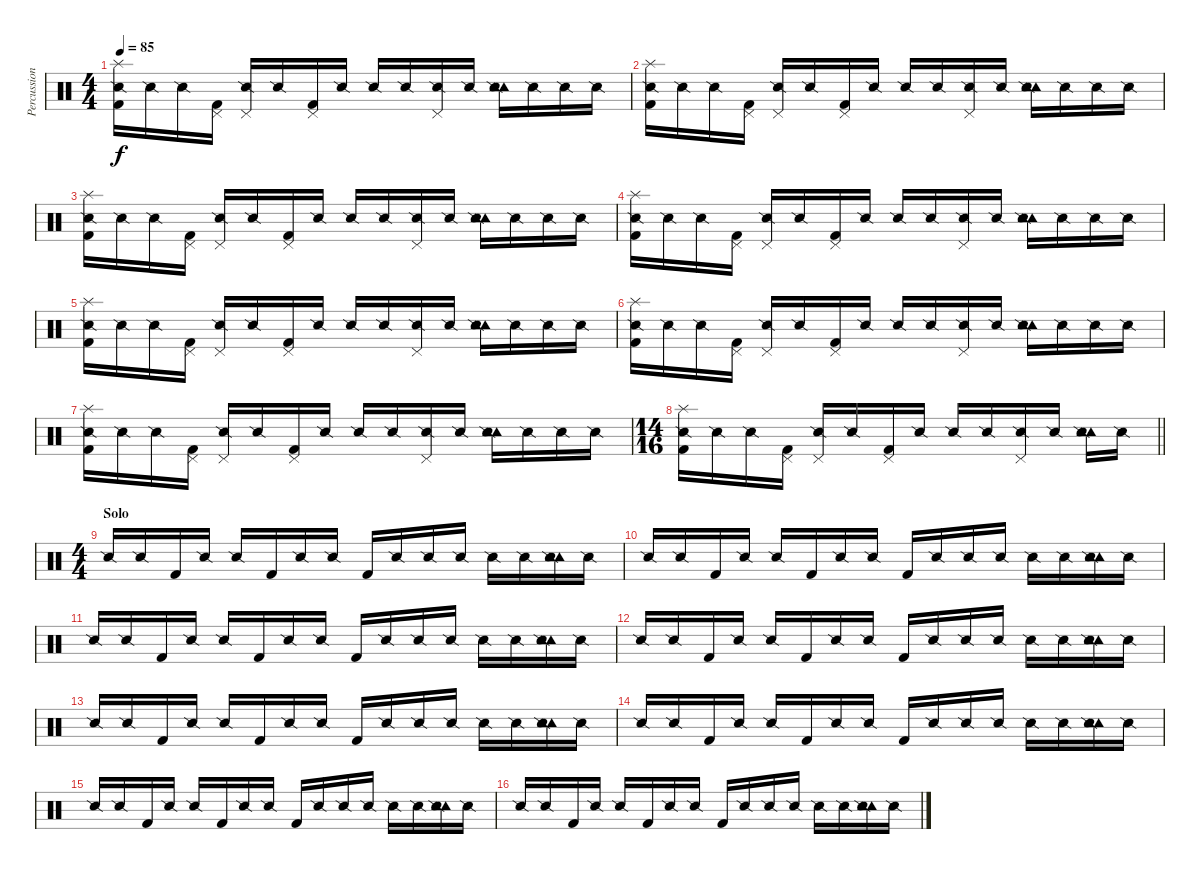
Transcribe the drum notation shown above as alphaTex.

\track ("Percussion" "Percussion") {instrument percussion}
\staff {score}
\articulation defaults
\ts (4 4)
\tempo 85
\clef neutral
\ks c
("Splash (hit)" "Kick (hit) 2" "Snare (side stick) 2").16{dy f} "Snare (side stick) 2".16 "Snare (side stick) 2".16 ("Pedal Hi-Hat (hit)" "Kick (hit) 2").16 ("Pedal Hi-Hat (hit)" "Snare (side stick) 2").16 "Snare (side stick) 2".16 ("Pedal Hi-Hat (hit)" "Kick (hit) 2").16 "Snare (side stick) 2".16 "Snare (side stick) 2".16 "Snare (side stick) 2".16 ("Pedal Hi-Hat (hit)" "Snare (side stick) 2").16 "Snare (side stick) 2".16 ("Tambourine (hit)" "Tambourine (hit)" "Snare (side stick) 2").16 "Snare (side stick) 2".16 "Snare (side stick) 2".16 "Snare (side stick) 2".16 |
("Splash (hit)" "Kick (hit) 2" "Snare (side stick) 2").16 "Snare (side stick) 2".16 "Snare (side stick) 2".16 ("Pedal Hi-Hat (hit)" "Kick (hit) 2").16 ("Pedal Hi-Hat (hit)" "Snare (side stick) 2").16 "Snare (side stick) 2".16 ("Pedal Hi-Hat (hit)" "Kick (hit) 2").16 "Snare (side stick) 2".16 "Snare (side stick) 2".16 "Snare (side stick) 2".16 ("Pedal Hi-Hat (hit)" "Snare (side stick) 2").16 "Snare (side stick) 2".16 ("Tambourine (hit)" "Tambourine (hit)" "Snare (side stick) 2").16 "Snare (side stick) 2".16 "Snare (side stick) 2".16 "Snare (side stick) 2".16 |
("Splash (hit)" "Kick (hit) 2" "Snare (side stick) 2").16 "Snare (side stick) 2".16 "Snare (side stick) 2".16 ("Pedal Hi-Hat (hit)" "Kick (hit) 2").16 ("Pedal Hi-Hat (hit)" "Snare (side stick) 2").16 "Snare (side stick) 2".16 ("Pedal Hi-Hat (hit)" "Kick (hit) 2").16 "Snare (side stick) 2".16 "Snare (side stick) 2".16 "Snare (side stick) 2".16 ("Pedal Hi-Hat (hit)" "Snare (side stick) 2").16 "Snare (side stick) 2".16 ("Tambourine (hit)" "Tambourine (hit)" "Snare (side stick) 2").16 "Snare (side stick) 2".16 "Snare (side stick) 2".16 "Snare (side stick) 2".16 |
("Splash (hit)" "Kick (hit) 2" "Snare (side stick) 2").16 "Snare (side stick) 2".16 "Snare (side stick) 2".16 ("Pedal Hi-Hat (hit)" "Kick (hit) 2").16 ("Pedal Hi-Hat (hit)" "Snare (side stick) 2").16 "Snare (side stick) 2".16 ("Pedal Hi-Hat (hit)" "Kick (hit) 2").16 "Snare (side stick) 2".16 "Snare (side stick) 2".16 "Snare (side stick) 2".16 ("Pedal Hi-Hat (hit)" "Snare (side stick) 2").16 "Snare (side stick) 2".16 ("Tambourine (hit)" "Tambourine (hit)" "Snare (side stick) 2").16 "Snare (side stick) 2".16 "Snare (side stick) 2".16 "Snare (side stick) 2".16 |
("Splash (hit)" "Kick (hit) 2" "Snare (side stick) 2").16 "Snare (side stick) 2".16 "Snare (side stick) 2".16 ("Pedal Hi-Hat (hit)" "Kick (hit) 2").16 ("Pedal Hi-Hat (hit)" "Snare (side stick) 2").16 "Snare (side stick) 2".16 ("Pedal Hi-Hat (hit)" "Kick (hit) 2").16 "Snare (side stick) 2".16 "Snare (side stick) 2".16 "Snare (side stick) 2".16 ("Pedal Hi-Hat (hit)" "Snare (side stick) 2").16 "Snare (side stick) 2".16 ("Tambourine (hit)" "Tambourine (hit)" "Snare (side stick) 2").16 "Snare (side stick) 2".16 "Snare (side stick) 2".16 "Snare (side stick) 2".16 |
("Splash (hit)" "Kick (hit) 2" "Snare (side stick) 2").16 "Snare (side stick) 2".16 "Snare (side stick) 2".16 ("Pedal Hi-Hat (hit)" "Kick (hit) 2").16 ("Pedal Hi-Hat (hit)" "Snare (side stick) 2").16 "Snare (side stick) 2".16 ("Pedal Hi-Hat (hit)" "Kick (hit) 2").16 "Snare (side stick) 2".16 "Snare (side stick) 2".16 "Snare (side stick) 2".16 ("Pedal Hi-Hat (hit)" "Snare (side stick) 2").16 "Snare (side stick) 2".16 ("Tambourine (hit)" "Tambourine (hit)" "Snare (side stick) 2").16 "Snare (side stick) 2".16 "Snare (side stick) 2".16 "Snare (side stick) 2".16 |
("Splash (hit)" "Kick (hit) 2" "Snare (side stick) 2").16 "Snare (side stick) 2".16 "Snare (side stick) 2".16 ("Pedal Hi-Hat (hit)" "Kick (hit) 2").16 ("Pedal Hi-Hat (hit)" "Snare (side stick) 2").16 "Snare (side stick) 2".16 ("Pedal Hi-Hat (hit)" "Kick (hit) 2").16 "Snare (side stick) 2".16 "Snare (side stick) 2".16 "Snare (side stick) 2".16 ("Pedal Hi-Hat (hit)" "Snare (side stick) 2").16 "Snare (side stick) 2".16 ("Tambourine (hit)" "Tambourine (hit)" "Snare (side stick) 2").16 "Snare (side stick) 2".16 "Snare (side stick) 2".16 "Snare (side stick) 2".16 |
\ts (14 16)
\barLineRight lightlight
("Splash (hit)" "Kick (hit) 2" "Snare (side stick) 2").16 "Snare (side stick) 2".16 "Snare (side stick) 2".16 ("Pedal Hi-Hat (hit)" "Kick (hit) 2").16 ("Pedal Hi-Hat (hit)" "Snare (side stick) 2").16 "Snare (side stick) 2".16 ("Pedal Hi-Hat (hit)" "Kick (hit) 2").16 "Snare (side stick) 2".16 "Snare (side stick) 2".16 "Snare (side stick) 2".16 ("Pedal Hi-Hat (hit)" "Snare (side stick) 2").16 "Snare (side stick) 2".16 ("Tambourine (hit)" "Tambourine (hit)" "Snare (side stick) 2").16 "Snare (side stick) 2".16 |
\ts (4 4)
\section ("" "Solo")
"Snare (side stick) 2".16 "Snare (side stick) 2".16 "Kick (hit) 2".16 "Snare (side stick) 2".16 "Snare (side stick) 2".16 "Kick (hit) 2".16 "Snare (side stick) 2".16 "Snare (side stick) 2".16 "Kick (hit) 2".16 "Snare (side stick) 2".16 "Snare (side stick) 2".16 "Snare (side stick) 2".16 "Snare (side stick) 2".16 "Snare (side stick) 2".16 ("Tambourine (hit)" "Tambourine (hit)" "Snare (side stick) 2").16 "Snare (side stick) 2".16 |
"Snare (side stick) 2".16 "Snare (side stick) 2".16 "Kick (hit) 2".16 "Snare (side stick) 2".16 "Snare (side stick) 2".16 "Kick (hit) 2".16 "Snare (side stick) 2".16 "Snare (side stick) 2".16 "Kick (hit) 2".16 "Snare (side stick) 2".16 "Snare (side stick) 2".16 "Snare (side stick) 2".16 "Snare (side stick) 2".16 "Snare (side stick) 2".16 ("Tambourine (hit)" "Tambourine (hit)" "Snare (side stick) 2").16 "Snare (side stick) 2".16 |
"Snare (side stick) 2".16 "Snare (side stick) 2".16 "Kick (hit) 2".16 "Snare (side stick) 2".16 "Snare (side stick) 2".16 "Kick (hit) 2".16 "Snare (side stick) 2".16 "Snare (side stick) 2".16 "Kick (hit) 2".16 "Snare (side stick) 2".16 "Snare (side stick) 2".16 "Snare (side stick) 2".16 "Snare (side stick) 2".16 "Snare (side stick) 2".16 ("Tambourine (hit)" "Tambourine (hit)" "Snare (side stick) 2").16 "Snare (side stick) 2".16 |
"Snare (side stick) 2".16 "Snare (side stick) 2".16 "Kick (hit) 2".16 "Snare (side stick) 2".16 "Snare (side stick) 2".16 "Kick (hit) 2".16 "Snare (side stick) 2".16 "Snare (side stick) 2".16 "Kick (hit) 2".16 "Snare (side stick) 2".16 "Snare (side stick) 2".16 "Snare (side stick) 2".16 "Snare (side stick) 2".16 "Snare (side stick) 2".16 ("Tambourine (hit)" "Tambourine (hit)" "Snare (side stick) 2").16 "Snare (side stick) 2".16 |
"Snare (side stick) 2".16 "Snare (side stick) 2".16 "Kick (hit) 2".16 "Snare (side stick) 2".16 "Snare (side stick) 2".16 "Kick (hit) 2".16 "Snare (side stick) 2".16 "Snare (side stick) 2".16 "Kick (hit) 2".16 "Snare (side stick) 2".16 "Snare (side stick) 2".16 "Snare (side stick) 2".16 "Snare (side stick) 2".16 "Snare (side stick) 2".16 ("Tambourine (hit)" "Tambourine (hit)" "Snare (side stick) 2").16 "Snare (side stick) 2".16 |
"Snare (side stick) 2".16 "Snare (side stick) 2".16 "Kick (hit) 2".16 "Snare (side stick) 2".16 "Snare (side stick) 2".16 "Kick (hit) 2".16 "Snare (side stick) 2".16 "Snare (side stick) 2".16 "Kick (hit) 2".16 "Snare (side stick) 2".16 "Snare (side stick) 2".16 "Snare (side stick) 2".16 "Snare (side stick) 2".16 "Snare (side stick) 2".16 ("Tambourine (hit)" "Tambourine (hit)" "Snare (side stick) 2").16 "Snare (side stick) 2".16 |
"Snare (side stick) 2".16 "Snare (side stick) 2".16 "Kick (hit) 2".16 "Snare (side stick) 2".16 "Snare (side stick) 2".16 "Kick (hit) 2".16 "Snare (side stick) 2".16 "Snare (side stick) 2".16 "Kick (hit) 2".16 "Snare (side stick) 2".16 "Snare (side stick) 2".16 "Snare (side stick) 2".16 "Snare (side stick) 2".16 "Snare (side stick) 2".16 ("Tambourine (hit)" "Tambourine (hit)" "Snare (side stick) 2").16 "Snare (side stick) 2".16 |
"Snare (side stick) 2".16 "Snare (side stick) 2".16 "Kick (hit) 2".16 "Snare (side stick) 2".16 "Snare (side stick) 2".16 "Kick (hit) 2".16 "Snare (side stick) 2".16 "Snare (side stick) 2".16 "Kick (hit) 2".16 "Snare (side stick) 2".16 "Snare (side stick) 2".16 "Snare (side stick) 2".16 "Snare (side stick) 2".16 "Snare (side stick) 2".16 ("Tambourine (hit)" "Tambourine (hit)" "Snare (side stick) 2").16 "Snare (side stick) 2".16
